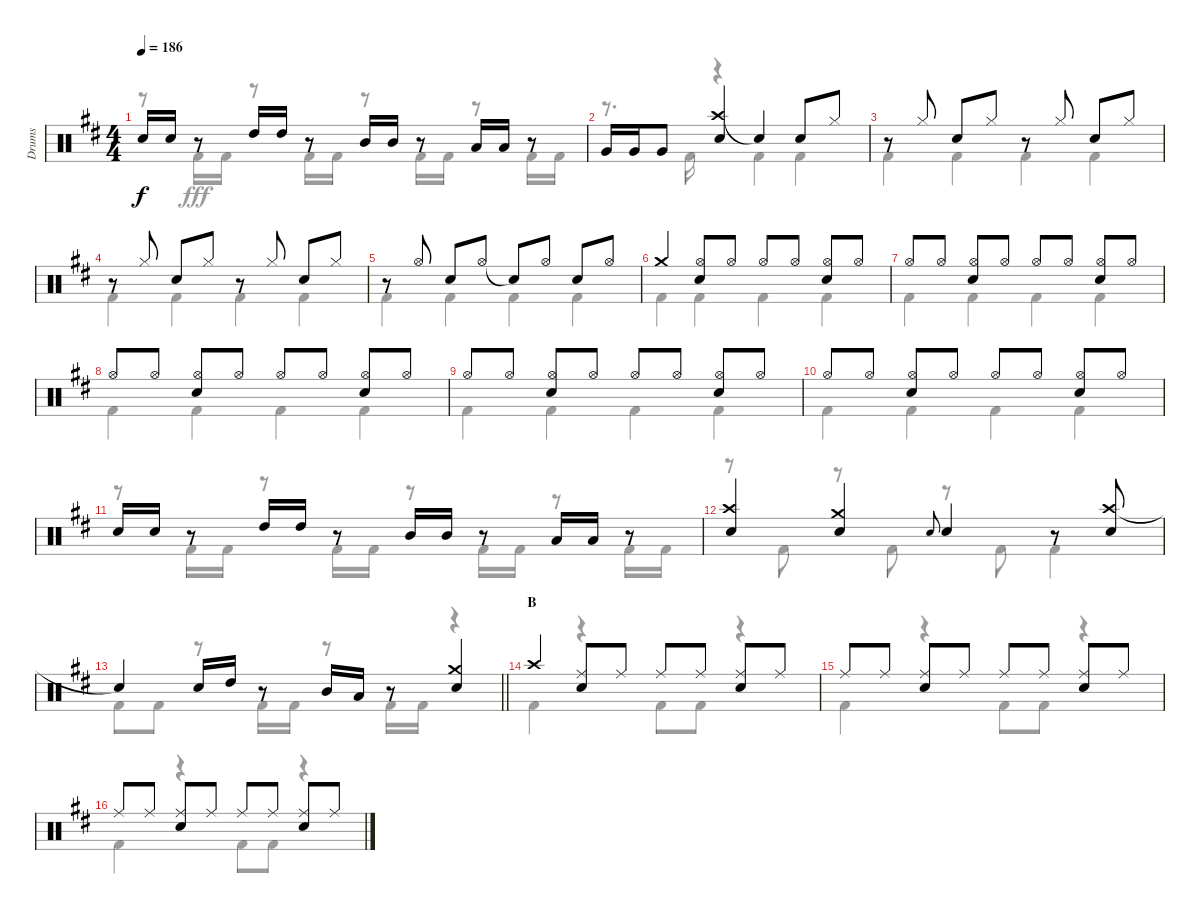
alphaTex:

\track ("Drums" "Drums") {instrument percussion}
\staff {score}
\articulation defaults
\voice
\ts (4 4)
\tempo 186
\clef neutral
\ks d "Snare (hit) 2".16{dy f} "Snare (hit) 2".16
r.8 "High Tom (hit)".16 "High Tom (hit)".16 r.8 "Mid Tom (hit)".16 "Mid Tom (hit)".16 r.8 "Low Tom (hit)".16 "Low Tom (hit)".16 r.8 |
"Very Low Tom (hit)".16 "Very Low Tom (hit)".16 "Very Low Tom (hit)".8 ("Crash high (hit)" "Snare (hit) 2").4 "Snare (hit)"{t}.4 "Snare (hit) 2".8 "Hi-Hat (closed)".8 |
r.8 "Hi-Hat (closed)".8 "Snare (hit) 2".8 "Hi-Hat (closed)".8 r.8 "Hi-Hat (closed)".8 "Snare (hit) 2".8 "Hi-Hat (closed)".8 |
r.8 "Hi-Hat (closed)".8 "Snare (hit) 2".8 "Hi-Hat (closed)".8 r.8 "Hi-Hat (closed)".8 "Snare (hit) 2".8 "Hi-Hat (closed)".8 |
r.8 "Hi-Hat (open)".8 "Snare (hit) 2".8 "Hi-Hat (open)".8 "Snare (hit)"{t}.8 "Hi-Hat (open)".8 "Snare (hit) 2".8 "Hi-Hat (open)".8 |
"Crash medium (hit)".4 ("Hi-Hat (open)" "Snare (hit) 2").8 "Hi-Hat (open)".8 "Hi-Hat (open)".8 "Hi-Hat (open)".8 ("Hi-Hat (open)" "Snare (hit) 2").8 "Hi-Hat (open)".8 |
"Hi-Hat (open)".8 "Hi-Hat (open)".8 ("Hi-Hat (open)" "Snare (hit) 2").8 "Hi-Hat (open)".8 "Hi-Hat (open)".8 "Hi-Hat (open)".8 ("Hi-Hat (open)" "Snare (hit) 2").8 "Hi-Hat (open)".8 |
"Hi-Hat (open)".8 "Hi-Hat (open)".8 ("Hi-Hat (open)" "Snare (hit) 2").8 "Hi-Hat (open)".8 "Hi-Hat (open)".8 "Hi-Hat (open)".8 ("Hi-Hat (open)" "Snare (hit) 2").8 "Hi-Hat (open)".8 |
"Hi-Hat (open)".8 "Hi-Hat (open)".8 ("Hi-Hat (open)" "Snare (hit) 2").8 "Hi-Hat (open)".8 "Hi-Hat (open)".8 "Hi-Hat (open)".8 ("Hi-Hat (open)" "Snare (hit) 2").8 "Hi-Hat (open)".8 |
"Hi-Hat (open)".8 "Hi-Hat (open)".8 ("Hi-Hat (open)" "Snare (hit) 2").8 "Hi-Hat (open)".8 "Hi-Hat (open)".8 "Hi-Hat (open)".8 ("Hi-Hat (open)" "Snare (hit) 2").8 "Hi-Hat (open)".8 |
"Snare (hit) 2".16 "Snare (hit) 2".16 r.8 "High Tom (hit)".16 "High Tom (hit)".16 r.8 "Mid Tom (hit)".16 "Mid Tom (hit)".16 r.8 "Low Tom (hit)".16 "Low Tom (hit)".16 r.8 |
("Crash high (hit)" "Snare (hit) 2").4 ("Crash medium (hit)" "Snare (hit) 2").4 "Snare (hit) 2".8{gr onbeat} "Snare (hit) 2".4 r.8 ("Crash high (hit)" "Snare (hit) 2").8 |
\barLineRight lightlight "Snare (hit)"{t}.4 "Snare (hit) 2".16 "High Tom (hit)".16
r.8 "Mid Tom (hit)".16 "Low Tom (hit)".16 r.8 ("Crash medium (hit)" "Snare (hit) 2").4 |
\section ("" "B")
"Crash high (hit)".4 ("Ride (middle)" "Snare (hit) 2").8 "Ride (middle)".8 "Ride (middle)".8 "Ride (middle)".8 ("Ride (middle)" "Snare (hit) 2").8 "Ride (middle)".8 |
"Ride (middle)".8 "Ride (middle)".8 ("Ride (middle)" "Snare (hit) 2").8 "Ride (middle)".8 "Ride (middle)".8 "Ride (middle)".8 ("Ride (middle)" "Snare (hit) 2").8 "Ride (middle)".8 |
"Ride (middle)".8 "Ride (middle)".8 ("Ride (middle)" "Snare (hit) 2").8 "Ride (middle)".8 "Ride (middle)".8 "Ride (middle)".8 ("Ride (middle)" "Snare (hit) 2").8 "Ride (middle)".8
\voice
\clef neutral
\ottava regular
\simile none
\ks d
r.8{dy fff} "Kick (hit) 2".16 "Kick (hit) 2".16 r.8 "Kick (hit) 2".16 "Kick (hit) 2".16 r.8 "Kick (hit) 2".16 "Kick (hit) 2".16 r.8 "Kick (hit) 2".16 "Kick (hit) 2".16 |
r.8{d} "Kick (hit) 2".16 r.4 "Kick (hit) 2".4 "Kick (hit) 2".4 |
"Kick (hit) 2".4 "Kick (hit) 2".4 "Kick (hit) 2".4 "Kick (hit) 2".4 |
"Kick (hit) 2".4 "Kick (hit) 2".4 "Kick (hit) 2".4 "Kick (hit) 2".4 |
"Kick (hit) 2".4 "Kick (hit) 2".4 "Kick (hit) 2".4 "Kick (hit) 2".4 |
"Kick (hit) 2".4 "Kick (hit) 2".4 "Kick (hit) 2".4 "Kick (hit) 2".4 |
"Kick (hit) 2".4 "Kick (hit) 2".4 "Kick (hit) 2".4 "Kick (hit) 2".4 |
"Kick (hit) 2".4 "Kick (hit) 2".4 "Kick (hit) 2".4 "Kick (hit) 2".4 |
"Kick (hit) 2".4 "Kick (hit) 2".4 "Kick (hit) 2".4 "Kick (hit) 2".4 |
"Kick (hit) 2".4 "Kick (hit) 2".4 "Kick (hit) 2".4 "Kick (hit) 2".4 |
r.8 "Kick (hit) 2".16 "Kick (hit) 2".16 r.8 "Kick (hit) 2".16 "Kick (hit) 2".16 r.8 "Kick (hit) 2".16 "Kick (hit) 2".16 r.8 "Kick (hit) 2".16 "Kick (hit) 2".16 |
r.8 "Kick (hit) 2".8 r.8 "Kick (hit) 2".8 r.8 "Kick (hit) 2".8 "Kick (hit) 2".4 |
\barLineRight lightlight "Kick (hit) 2".8 "Kick (hit) 2".8
r.8 "Kick (hit) 2".16 "Kick (hit) 2".16 r.8 "Kick (hit) 2".16 "Kick (hit) 2".16 r.4 |
"Kick (hit) 2".4 r.4 "Kick (hit) 2".8 "Kick (hit) 2".8 r.4 |
"Kick (hit) 2".4 r.4 "Kick (hit) 2".8 "Kick (hit) 2".8 r.4 |
"Kick (hit) 2".4 r.4 "Kick (hit) 2".8 "Kick (hit) 2".8 r.4
